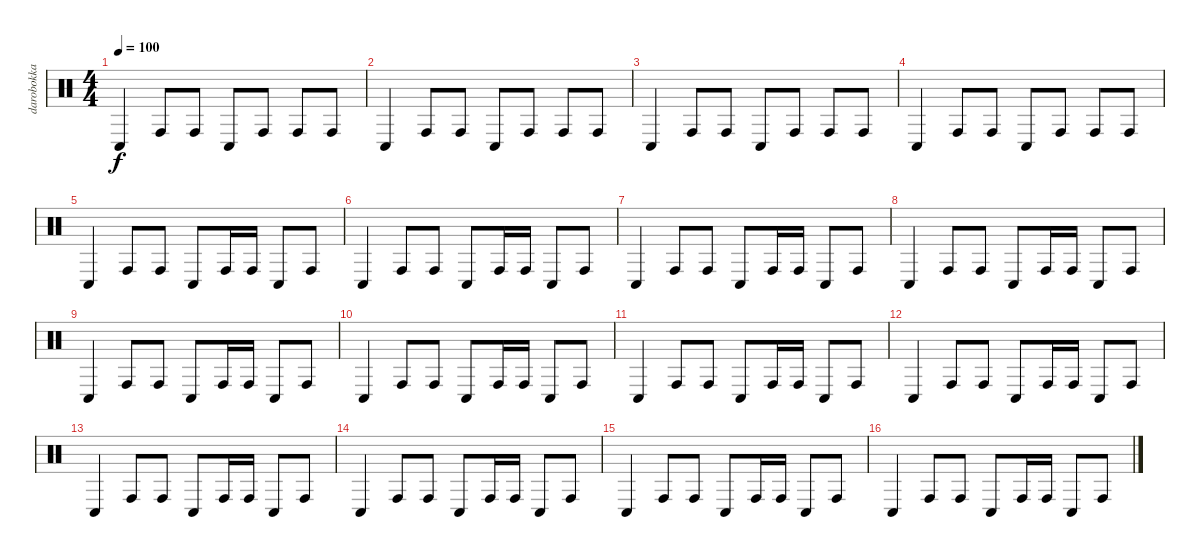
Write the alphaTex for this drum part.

\track ("darobokka" "darobokka") {instrument percussion}
\staff {score}
\articulation defaults
\ts (4 4)
\tempo 100
\clef neutral
\ks c "Conga low (hit)".4{dy f} "Conga high (hit)".8 "Conga high (hit)".8 "Conga low (hit)".8 "Conga high (hit)".8 "Conga high (hit)".8 "Conga high (hit)".8
|
"Conga low (hit)".4 "Conga high (hit)".8 "Conga high (hit)".8 "Conga low (hit)".8 "Conga high (hit)".8 "Conga high (hit)".8 "Conga high (hit)".8 |
"Conga low (hit)".4 "Conga high (hit)".8 "Conga high (hit)".8 "Conga low (hit)".8 "Conga high (hit)".8 "Conga high (hit)".8 "Conga high (hit)".8 |
"Conga low (hit)".4 "Conga high (hit)".8 "Conga high (hit)".8 "Conga low (hit)".8 "Conga high (hit)".8 "Conga high (hit)".8 "Conga high (hit)".8 |
"Conga low (hit)".4 "Conga high (hit)".8 "Conga high (hit)".8 "Conga low (hit)".8 "Conga high (hit)".16 "Conga high (hit)".16 "Conga low (hit)".8 "Conga high (hit)".8 |
"Conga low (hit)".4 "Conga high (hit)".8 "Conga high (hit)".8 "Conga low (hit)".8 "Conga high (hit)".16 "Conga high (hit)".16 "Conga low (hit)".8 "Conga high (hit)".8 |
"Conga low (hit)".4 "Conga high (hit)".8 "Conga high (hit)".8 "Conga low (hit)".8 "Conga high (hit)".16 "Conga high (hit)".16 "Conga low (hit)".8 "Conga high (hit)".8 |
"Conga low (hit)".4 "Conga high (hit)".8 "Conga high (hit)".8 "Conga low (hit)".8 "Conga high (hit)".16 "Conga high (hit)".16 "Conga low (hit)".8 "Conga high (hit)".8 |
"Conga low (hit)".4 "Conga high (hit)".8 "Conga high (hit)".8 "Conga low (hit)".8 "Conga high (hit)".16 "Conga high (hit)".16 "Conga low (hit)".8 "Conga high (hit)".8 |
"Conga low (hit)".4 "Conga high (hit)".8 "Conga high (hit)".8 "Conga low (hit)".8 "Conga high (hit)".16 "Conga high (hit)".16 "Conga low (hit)".8 "Conga high (hit)".8 |
"Conga low (hit)".4 "Conga high (hit)".8 "Conga high (hit)".8 "Conga low (hit)".8 "Conga high (hit)".16 "Conga high (hit)".16 "Conga low (hit)".8 "Conga high (hit)".8 |
"Conga low (hit)".4 "Conga high (hit)".8 "Conga high (hit)".8 "Conga low (hit)".8 "Conga high (hit)".16 "Conga high (hit)".16 "Conga low (hit)".8 "Conga high (hit)".8 |
"Conga low (hit)".4 "Conga high (hit)".8 "Conga high (hit)".8 "Conga low (hit)".8 "Conga high (hit)".16 "Conga high (hit)".16 "Conga low (hit)".8 "Conga high (hit)".8 |
"Conga low (hit)".4 "Conga high (hit)".8 "Conga high (hit)".8 "Conga low (hit)".8 "Conga high (hit)".16 "Conga high (hit)".16 "Conga low (hit)".8 "Conga high (hit)".8 |
"Conga low (hit)".4 "Conga high (hit)".8 "Conga high (hit)".8 "Conga low (hit)".8 "Conga high (hit)".16 "Conga high (hit)".16 "Conga low (hit)".8 "Conga high (hit)".8 |
"Conga low (hit)".4 "Conga high (hit)".8 "Conga high (hit)".8 "Conga low (hit)".8 "Conga high (hit)".16 "Conga high (hit)".16 "Conga low (hit)".8 "Conga high (hit)".8
